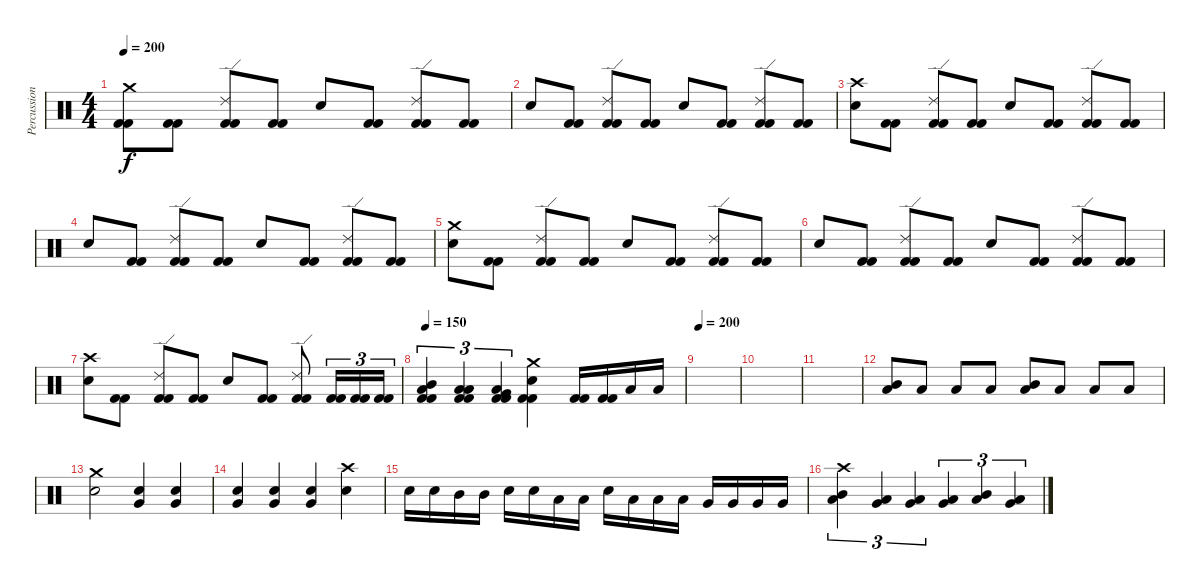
\track ("Percussion" "Percussion") {instrument percussion}
\staff {score}
\articulation defaults
\ts (4 4)
\tempo 200
\clef neutral
\ks c
("Crash medium (hit)" "Kick (hit) 2" "Kick (hit) 2").8{dy f} ("Kick (hit) 2" "Kick (hit) 2").8 ("Kick (hit) 2" "Kick (hit) 2" "Ride (edge) 2").8 ("Kick (hit) 2" "Kick (hit) 2").8 "Electric Snare (hit)".8 ("Kick (hit) 2" "Kick (hit) 2").8 ("Kick (hit) 2" "Kick (hit) 2" "Ride (edge) 2").8 ("Kick (hit) 2" "Kick (hit) 2").8 |
"Electric Snare (hit)".8 ("Kick (hit) 2" "Kick (hit) 2").8 ("Kick (hit) 2" "Kick (hit) 2" "Ride (edge) 2").8 ("Kick (hit) 2" "Kick (hit) 2").8 "Electric Snare (hit)".8 ("Kick (hit) 2" "Kick (hit) 2").8 ("Kick (hit) 2" "Kick (hit) 2" "Ride (edge) 2").8 ("Kick (hit) 2" "Kick (hit) 2").8 |
("Electric Snare (hit)" "Crash high (hit)").8 ("Kick (hit) 2" "Kick (hit) 2").8 ("Kick (hit) 2" "Kick (hit) 2" "Ride (edge) 2").8 ("Kick (hit) 2" "Kick (hit) 2").8 "Electric Snare (hit)".8 ("Kick (hit) 2" "Kick (hit) 2").8 ("Kick (hit) 2" "Kick (hit) 2" "Ride (edge) 2").8 ("Kick (hit) 2" "Kick (hit) 2").8 |
"Electric Snare (hit)".8 ("Kick (hit) 2" "Kick (hit) 2").8 ("Kick (hit) 2" "Kick (hit) 2" "Ride (edge) 2").8 ("Kick (hit) 2" "Kick (hit) 2").8 "Electric Snare (hit)".8 ("Kick (hit) 2" "Kick (hit) 2").8 ("Kick (hit) 2" "Kick (hit) 2" "Ride (edge) 2").8 ("Kick (hit) 2" "Kick (hit) 2").8 |
("Electric Snare (hit)" "Crash medium (hit)").8 ("Kick (hit) 2" "Kick (hit) 2").8 ("Kick (hit) 2" "Kick (hit) 2" "Ride (edge) 2").8 ("Kick (hit) 2" "Kick (hit) 2").8 "Electric Snare (hit)".8 ("Kick (hit) 2" "Kick (hit) 2").8 ("Kick (hit) 2" "Kick (hit) 2" "Ride (edge) 2").8 ("Kick (hit) 2" "Kick (hit) 2").8 |
"Electric Snare (hit)".8 ("Kick (hit) 2" "Kick (hit) 2").8 ("Kick (hit) 2" "Kick (hit) 2" "Ride (edge) 2").8 ("Kick (hit) 2" "Kick (hit) 2").8 "Electric Snare (hit)".8 ("Kick (hit) 2" "Kick (hit) 2").8 ("Kick (hit) 2" "Kick (hit) 2" "Ride (edge) 2").8 ("Kick (hit) 2" "Kick (hit) 2").8 |
("Electric Snare (hit)" "Crash high (hit)").8 ("Kick (hit) 2" "Kick (hit) 2").8 ("Kick (hit) 2" "Kick (hit) 2" "Ride (edge) 2").8 ("Kick (hit) 2" "Kick (hit) 2").8 "Electric Snare (hit)".8 ("Kick (hit) 2" "Kick (hit) 2").8 ("Kick (hit) 2" "Kick (hit) 2" "Ride (edge) 2").8 ("Kick (hit) 2" "Kick (hit) 2").16{tu (3 2)} ("Kick (hit) 2" "Kick (hit) 2").16{tu (3 2)} ("Kick (hit) 2" "Kick (hit) 2").16{tu (3 2)} |
\tempo 150
("Mid Tom (hit)" "Low Floor Tom (hit)" "Kick (hit) 2" "Kick (hit) 2").4{tu (3 2)} ("Low Tom (hit)" "Low Floor Tom (hit)" "Kick (hit) 2" "Kick (hit) 2").4{tu (3 2)} ("Very Low Tom (hit)" "Low Floor Tom (hit)" "Kick (hit) 2" "Kick (hit) 2").4{tu (3 2)} ("Kick (hit) 2" "Kick (hit) 2" "Electric Snare (hit)" "Crash medium (hit)").4 ("Kick (hit) 2" "Kick (hit) 2").16 ("Kick (hit) 2" "Kick (hit) 2").16 "Low Tom (hit)".16 "Low Tom (hit)".16 |
\tempo 200
|
|
|
("Mid Tom (hit)" "Low Tom (hit)").8 "Low Tom (hit)".8 "Low Tom (hit)".8 "Low Tom (hit)".8 ("Mid Tom (hit)" "Low Tom (hit)").8 "Low Tom (hit)".8 "Low Tom (hit)".8 "Low Tom (hit)".8 |
("Electric Snare (hit)" "Crash medium (hit)").2 ("Electric Snare (hit)" "Very Low Tom (hit)").4 ("Electric Snare (hit)" "Very Low Tom (hit)").4 |
("Electric Snare (hit)" "Very Low Tom (hit)").4 ("Electric Snare (hit)" "Very Low Tom (hit)").4 ("Electric Snare (hit)" "Very Low Tom (hit)").4 ("Crash high (hit)" "Electric Snare (hit)").4 |
"Electric Snare (hit)".16 "Electric Snare (hit)".16 "Mid Tom (hit)".16 "Mid Tom (hit)".16 "Electric Snare (hit)".16 "Electric Snare (hit)".16 "Low Tom (hit)".16 "Low Tom (hit)".16 "Electric Snare (hit)".16 "Low Tom (hit)".16 "Low Tom (hit)".16 "Low Tom (hit)".16 "Very Low Tom (hit)".16 "Very Low Tom (hit)".16 "Very Low Tom (hit)".16 "Very Low Tom (hit)".16 |
("Mid Tom (hit)" "Low Tom (hit)" "Crash high (hit)").4{tu (3 2)} ("Low Tom (hit)" "Very Low Tom (hit)").4{tu (3 2)} ("Very Low Tom (hit)" "Low Floor Tom (hit)").4{tu (3 2)} ("Low Tom (hit)" "Very Low Tom (hit)").4{tu (3 2)} ("Mid Tom (hit)" "Low Tom (hit)").4{tu (3 2)} ("Low Tom (hit)" "Very Low Tom (hit)").4{tu (3 2)}
